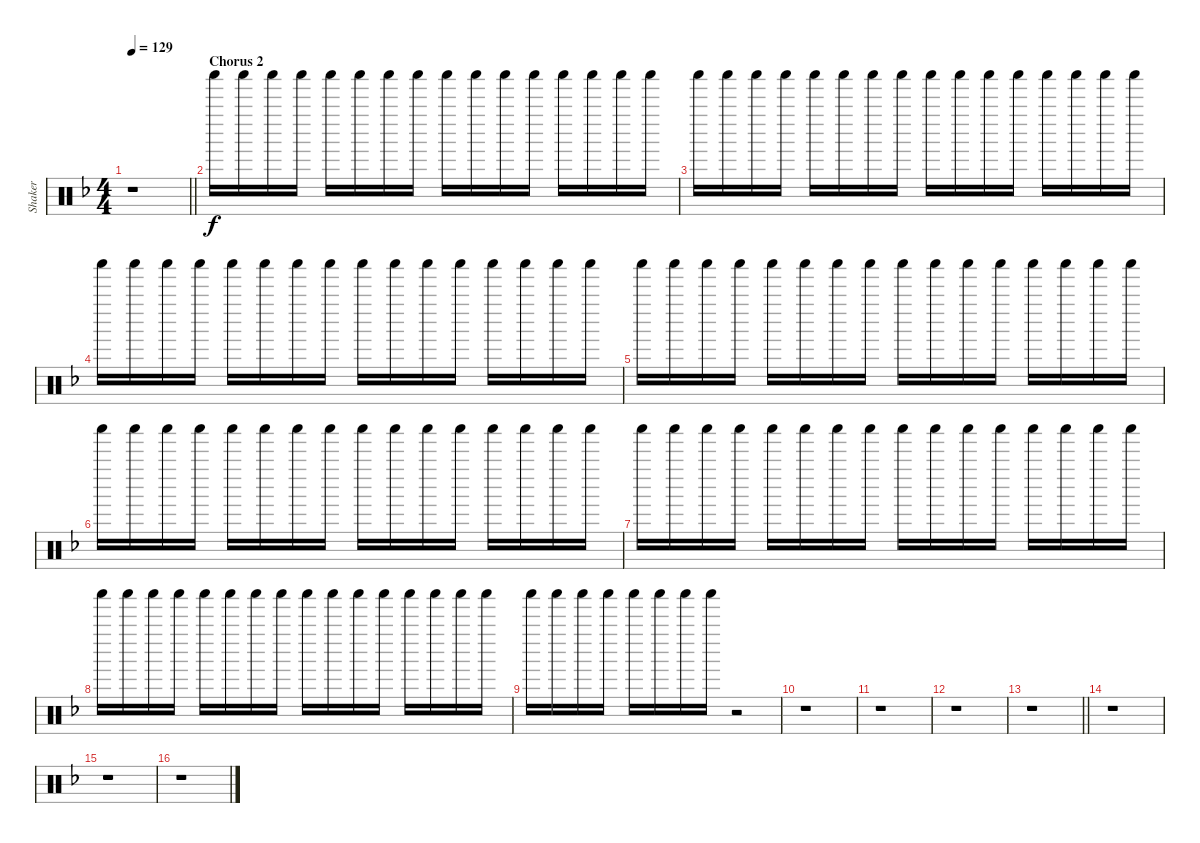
\track ("Shaker" "Shaker") {instrument percussion}
\staff {score}
\articulation defaults
\ts (4 4)
\tempo 129
\clef neutral
\barLineRight lightlight
\ks dminor
r.1{dy f} |
\section ("" "Chorus 2")
"Shaker (hit)".16 "Shaker (hit)".16 "Shaker (hit)".16 "Shaker (hit)".16 "Shaker (hit)".16 "Shaker (hit)".16 "Shaker (hit)".16 "Shaker (hit)".16 "Shaker (hit)".16 "Shaker (hit)".16 "Shaker (hit)".16 "Shaker (hit)".16 "Shaker (hit)".16 "Shaker (hit)".16 "Shaker (hit)".16 "Shaker (hit)".16 |
"Shaker (hit)".16 "Shaker (hit)".16 "Shaker (hit)".16 "Shaker (hit)".16 "Shaker (hit)".16 "Shaker (hit)".16 "Shaker (hit)".16 "Shaker (hit)".16 "Shaker (hit)".16 "Shaker (hit)".16 "Shaker (hit)".16 "Shaker (hit)".16 "Shaker (hit)".16 "Shaker (hit)".16 "Shaker (hit)".16 "Shaker (hit)".16 |
"Shaker (hit)".16 "Shaker (hit)".16 "Shaker (hit)".16 "Shaker (hit)".16 "Shaker (hit)".16 "Shaker (hit)".16 "Shaker (hit)".16 "Shaker (hit)".16 "Shaker (hit)".16 "Shaker (hit)".16 "Shaker (hit)".16 "Shaker (hit)".16 "Shaker (hit)".16 "Shaker (hit)".16 "Shaker (hit)".16 "Shaker (hit)".16 |
"Shaker (hit)".16 "Shaker (hit)".16 "Shaker (hit)".16 "Shaker (hit)".16 "Shaker (hit)".16 "Shaker (hit)".16 "Shaker (hit)".16 "Shaker (hit)".16 "Shaker (hit)".16 "Shaker (hit)".16 "Shaker (hit)".16 "Shaker (hit)".16 "Shaker (hit)".16 "Shaker (hit)".16 "Shaker (hit)".16 "Shaker (hit)".16 |
"Shaker (hit)".16 "Shaker (hit)".16 "Shaker (hit)".16 "Shaker (hit)".16 "Shaker (hit)".16 "Shaker (hit)".16 "Shaker (hit)".16 "Shaker (hit)".16 "Shaker (hit)".16 "Shaker (hit)".16 "Shaker (hit)".16 "Shaker (hit)".16 "Shaker (hit)".16 "Shaker (hit)".16 "Shaker (hit)".16 "Shaker (hit)".16 |
"Shaker (hit)".16 "Shaker (hit)".16 "Shaker (hit)".16 "Shaker (hit)".16 "Shaker (hit)".16 "Shaker (hit)".16 "Shaker (hit)".16 "Shaker (hit)".16 "Shaker (hit)".16 "Shaker (hit)".16 "Shaker (hit)".16 "Shaker (hit)".16 "Shaker (hit)".16 "Shaker (hit)".16 "Shaker (hit)".16 "Shaker (hit)".16 |
"Shaker (hit)".16 "Shaker (hit)".16 "Shaker (hit)".16 "Shaker (hit)".16 "Shaker (hit)".16 "Shaker (hit)".16 "Shaker (hit)".16 "Shaker (hit)".16 "Shaker (hit)".16 "Shaker (hit)".16 "Shaker (hit)".16 "Shaker (hit)".16 "Shaker (hit)".16 "Shaker (hit)".16 "Shaker (hit)".16 "Shaker (hit)".16 |
"Shaker (hit)".16 "Shaker (hit)".16 "Shaker (hit)".16 "Shaker (hit)".16 "Shaker (hit)".16 "Shaker (hit)".16 "Shaker (hit)".16 "Shaker (hit)".16 r.2 |
r.1 |
r.1 |
r.1 |
\barLineRight lightlight
r.1 |
r.1 |
r.1 |
r.1
